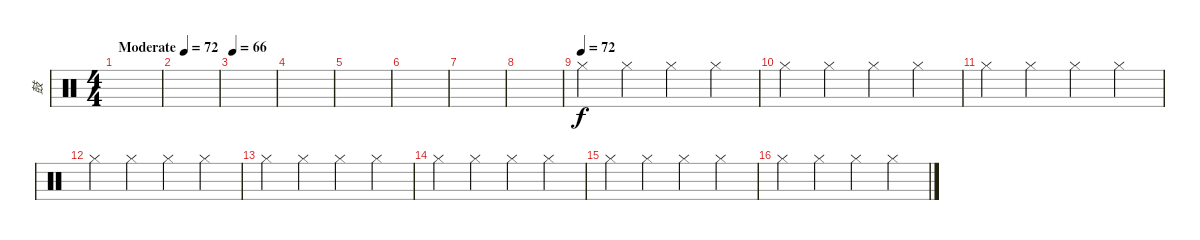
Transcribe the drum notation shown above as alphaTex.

\track ("鼓" "鼓") {instrument percussion}
\staff {score}
\articulation defaults
\ts (4 4)
\tempo (72 "Moderate")
\clef neutral
\ks c
|
|
\tempo 66
|
|
|
|
|
|
\tempo (72)
"Hi-Hat (closed)".4 "Hi-Hat (closed)".4 "Hi-Hat (closed)".4 "Hi-Hat (closed)".4 |
"Hi-Hat (closed)".4 "Hi-Hat (closed)".4 "Hi-Hat (closed)".4 "Hi-Hat (closed)".4 |
"Hi-Hat (closed)".4 "Hi-Hat (closed)".4 "Hi-Hat (closed)".4 "Hi-Hat (closed)".4 |
"Hi-Hat (closed)".4 "Hi-Hat (closed)".4 "Hi-Hat (closed)".4 "Hi-Hat (closed)".4 |
"Hi-Hat (closed)".4 "Hi-Hat (closed)".4 "Hi-Hat (closed)".4 "Hi-Hat (closed)".4 |
"Hi-Hat (closed)".4 "Hi-Hat (closed)".4 "Hi-Hat (closed)".4 "Hi-Hat (closed)".4 |
"Hi-Hat (closed)".4 "Hi-Hat (closed)".4 "Hi-Hat (closed)".4 "Hi-Hat (closed)".4 |
"Hi-Hat (closed)".4 "Hi-Hat (closed)".4 "Hi-Hat (closed)".4 "Hi-Hat (closed)".4
